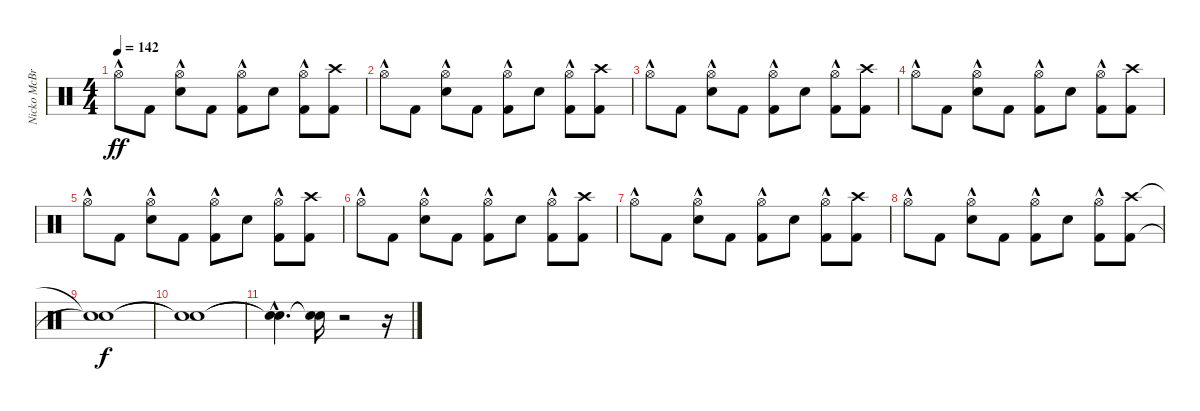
\track ("Nicko McBrain" "Nicko McBr") {instrument percussion}
\staff {score}
\articulation defaults
\ts (4 4)
\tempo 142
\clef neutral
\ks c "Hi-Hat (open)"{hac}.8{dy ff} "Kick (hit) 2".8
("Snare (hit) 2" "Hi-Hat (open)"{hac}).8 "Kick (hit) 2".8 ("Kick (hit) 2" "Hi-Hat (open)"{hac}).8 "Snare (hit) 2".8 ("Kick (hit) 2" "Hi-Hat (open)"{hac}).8 ("Kick (hit) 2" "Crash high (hit)").8 |
"Hi-Hat (open)"{hac}.8 "Kick (hit) 2".8 ("Snare (hit) 2" "Hi-Hat (open)"{hac}).8 "Kick (hit) 2".8 ("Kick (hit) 2" "Hi-Hat (open)"{hac}).8 "Snare (hit) 2".8 ("Kick (hit) 2" "Hi-Hat (open)"{hac}).8 ("Kick (hit) 2" "Crash high (hit)").8 |
"Hi-Hat (open)"{hac}.8 "Kick (hit) 2".8 ("Snare (hit) 2" "Hi-Hat (open)"{hac}).8 "Kick (hit) 2".8 ("Kick (hit) 2" "Hi-Hat (open)"{hac}).8 "Snare (hit) 2".8 ("Kick (hit) 2" "Hi-Hat (open)"{hac}).8 ("Kick (hit) 2" "Crash high (hit)").8 |
"Hi-Hat (open)"{hac}.8 "Kick (hit) 2".8 ("Snare (hit) 2" "Hi-Hat (open)"{hac}).8 "Kick (hit) 2".8 ("Kick (hit) 2" "Hi-Hat (open)"{hac}).8 "Snare (hit) 2".8 ("Kick (hit) 2" "Hi-Hat (open)"{hac}).8 ("Kick (hit) 2" "Crash high (hit)").8 |
"Hi-Hat (open)"{hac}.8 "Kick (hit) 2".8 ("Snare (hit) 2" "Hi-Hat (open)"{hac}).8 "Kick (hit) 2".8 ("Kick (hit) 2" "Hi-Hat (open)"{hac}).8 "Snare (hit) 2".8 ("Kick (hit) 2" "Hi-Hat (open)"{hac}).8 ("Kick (hit) 2" "Crash high (hit)").8 |
"Hi-Hat (open)"{hac}.8 "Kick (hit) 2".8 ("Snare (hit) 2" "Hi-Hat (open)"{hac}).8 "Kick (hit) 2".8 ("Kick (hit) 2" "Hi-Hat (open)"{hac}).8 "Snare (hit) 2".8 ("Kick (hit) 2" "Hi-Hat (open)"{hac}).8 ("Kick (hit) 2" "Crash high (hit)").8 |
"Hi-Hat (open)"{hac}.8 "Kick (hit) 2".8 ("Snare (hit) 2" "Hi-Hat (open)"{hac}).8 "Kick (hit) 2".8 ("Kick (hit) 2" "Hi-Hat (open)"{hac}).8 "Snare (hit) 2".8 ("Kick (hit) 2" "Hi-Hat (open)"{hac}).8 ("Kick (hit) 2" "Crash high (hit)").8 |
"Hi-Hat (open)"{hac}.8 "Kick (hit) 2".8 ("Snare (hit) 2" "Hi-Hat (open)"{hac}).8 "Kick (hit) 2".8 ("Kick (hit) 2" "Hi-Hat (open)"{hac}).8 "Snare (hit) 2".8 ("Kick (hit) 2" "Hi-Hat (open)"{hac}).8 ("Kick (hit) 2" "Crash high (hit)").8 |
("Snare (hit)"{t} "Snare (hit)"{t}).1{dy f} |
("Snare (hit)"{t} "Snare (hit)"{t}).1 |
("Snare (hit)"{hac t} "Snare (hit)"{hac t}).4{d} ("Snare (hit)"{t} "Snare (hit)"{t}).16 r.2 r.16
